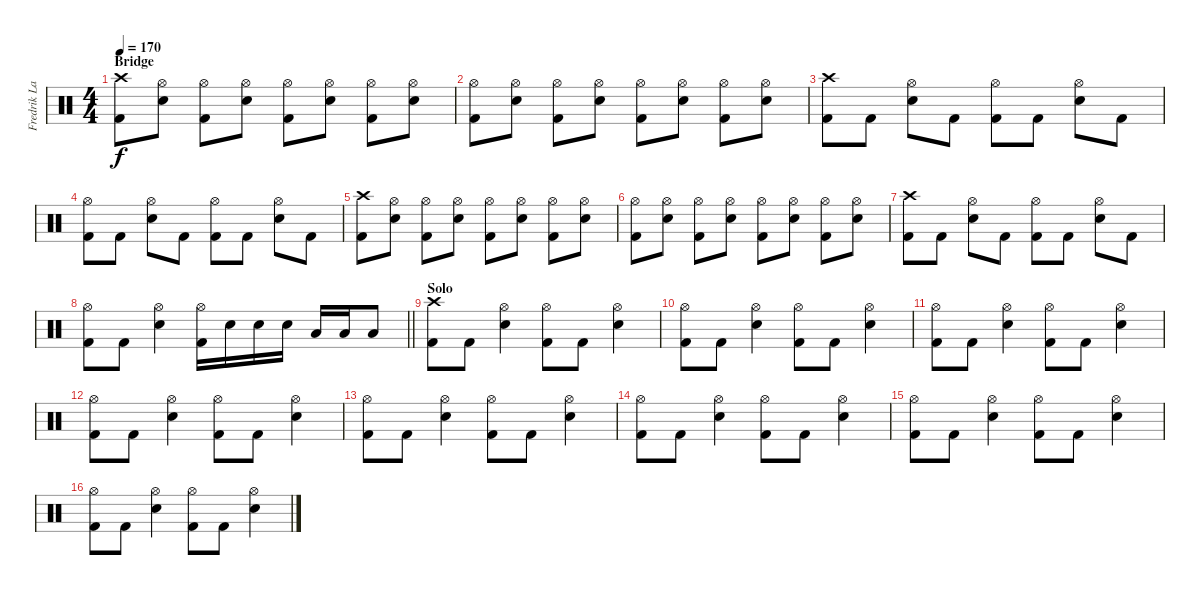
\track ("Fredrik Larzon" "Fredrik La") {instrument percussion}
\staff {score}
\articulation defaults
\ts (4 4)
\section ("" "Bridge")
\tempo 170
\clef neutral
\ks c
("Crash high (hit)" "Kick (hit) 2").8{dy f} ("Hi-Hat (open)" "Electric Snare (hit)").8 ("Hi-Hat (open)" "Kick (hit) 2").8 ("Hi-Hat (open)" "Electric Snare (hit)").8 ("Hi-Hat (open)" "Kick (hit) 2").8 ("Hi-Hat (open)" "Electric Snare (hit)").8 ("Hi-Hat (open)" "Kick (hit) 2").8 ("Hi-Hat (open)" "Electric Snare (hit)").8 |
("Hi-Hat (open)" "Kick (hit) 2").8 ("Hi-Hat (open)" "Electric Snare (hit)").8 ("Hi-Hat (open)" "Kick (hit) 2").8 ("Hi-Hat (open)" "Electric Snare (hit)").8 ("Hi-Hat (open)" "Kick (hit) 2").8 ("Hi-Hat (open)" "Electric Snare (hit)").8 ("Hi-Hat (open)" "Kick (hit) 2").8 ("Hi-Hat (open)" "Electric Snare (hit)").8 |
("Crash high (hit)" "Kick (hit) 2").8 "Kick (hit) 2".8 ("Hi-Hat (open)" "Electric Snare (hit)").8 "Kick (hit) 2".8 ("Hi-Hat (open)" "Kick (hit) 2").8 "Kick (hit) 2".8 ("Hi-Hat (open)" "Electric Snare (hit)").8 "Kick (hit) 2".8 |
("Hi-Hat (open)" "Kick (hit) 2").8 "Kick (hit) 2".8 ("Hi-Hat (open)" "Electric Snare (hit)").8 "Kick (hit) 2".8 ("Hi-Hat (open)" "Kick (hit) 2").8 "Kick (hit) 2".8 ("Hi-Hat (open)" "Electric Snare (hit)").8 "Kick (hit) 2".8 |
("Crash high (hit)" "Kick (hit) 2").8 ("Hi-Hat (open)" "Electric Snare (hit)").8 ("Hi-Hat (open)" "Kick (hit) 2").8 ("Hi-Hat (open)" "Electric Snare (hit)").8 ("Hi-Hat (open)" "Kick (hit) 2").8 ("Hi-Hat (open)" "Electric Snare (hit)").8 ("Hi-Hat (open)" "Kick (hit) 2").8 ("Hi-Hat (open)" "Electric Snare (hit)").8 |
("Hi-Hat (open)" "Kick (hit) 2").8 ("Hi-Hat (open)" "Electric Snare (hit)").8 ("Hi-Hat (open)" "Kick (hit) 2").8 ("Hi-Hat (open)" "Electric Snare (hit)").8 ("Hi-Hat (open)" "Kick (hit) 2").8 ("Hi-Hat (open)" "Electric Snare (hit)").8 ("Hi-Hat (open)" "Kick (hit) 2").8 ("Hi-Hat (open)" "Electric Snare (hit)").8 |
("Crash high (hit)" "Kick (hit) 2").8 "Kick (hit) 2".8 ("Hi-Hat (open)" "Electric Snare (hit)").8 "Kick (hit) 2".8 ("Hi-Hat (open)" "Kick (hit) 2").8 "Kick (hit) 2".8 ("Hi-Hat (open)" "Electric Snare (hit)").8 "Kick (hit) 2".8 |
\barLineRight lightlight
("Hi-Hat (open)" "Kick (hit) 2").8 "Kick (hit) 2".8 ("Hi-Hat (open)" "Electric Snare (hit)").4 ("Hi-Hat (open)" "Kick (hit) 2").16 "Electric Snare (hit)".16 "Electric Snare (hit)".16 "Electric Snare (hit)".16 "Low Tom (hit)".16 "Low Tom (hit)".16 "Low Tom (hit)".8 |
\section ("" "Solo")
("Crash high (hit)" "Kick (hit) 2").8 "Kick (hit) 2".8 ("Hi-Hat (open)" "Electric Snare (hit)").4 ("Hi-Hat (open)" "Kick (hit) 2").8 "Kick (hit) 2".8 ("Hi-Hat (open)" "Electric Snare (hit)").4 |
("Hi-Hat (open)" "Kick (hit) 2").8 "Kick (hit) 2".8 ("Hi-Hat (open)" "Electric Snare (hit)").4 ("Hi-Hat (open)" "Kick (hit) 2").8 "Kick (hit) 2".8 ("Hi-Hat (open)" "Electric Snare (hit)").4 |
("Hi-Hat (open)" "Kick (hit) 2").8 "Kick (hit) 2".8 ("Hi-Hat (open)" "Electric Snare (hit)").4 ("Hi-Hat (open)" "Kick (hit) 2").8 "Kick (hit) 2".8 ("Hi-Hat (open)" "Electric Snare (hit)").4 |
("Hi-Hat (open)" "Kick (hit) 2").8 "Kick (hit) 2".8 ("Hi-Hat (open)" "Electric Snare (hit)").4 ("Hi-Hat (open)" "Kick (hit) 2").8 "Kick (hit) 2".8 ("Hi-Hat (open)" "Electric Snare (hit)").4 |
("Hi-Hat (open)" "Kick (hit) 2").8 "Kick (hit) 2".8 ("Hi-Hat (open)" "Electric Snare (hit)").4 ("Hi-Hat (open)" "Kick (hit) 2").8 "Kick (hit) 2".8 ("Hi-Hat (open)" "Electric Snare (hit)").4 |
("Hi-Hat (open)" "Kick (hit) 2").8 "Kick (hit) 2".8 ("Hi-Hat (open)" "Electric Snare (hit)").4 ("Hi-Hat (open)" "Kick (hit) 2").8 "Kick (hit) 2".8 ("Hi-Hat (open)" "Electric Snare (hit)").4 |
("Hi-Hat (open)" "Kick (hit) 2").8 "Kick (hit) 2".8 ("Hi-Hat (open)" "Electric Snare (hit)").4 ("Hi-Hat (open)" "Kick (hit) 2").8 "Kick (hit) 2".8 ("Hi-Hat (open)" "Electric Snare (hit)").4 |
("Hi-Hat (open)" "Kick (hit) 2").8 "Kick (hit) 2".8 ("Hi-Hat (open)" "Electric Snare (hit)").4 ("Hi-Hat (open)" "Kick (hit) 2").8 "Kick (hit) 2".8 ("Hi-Hat (open)" "Electric Snare (hit)").4
